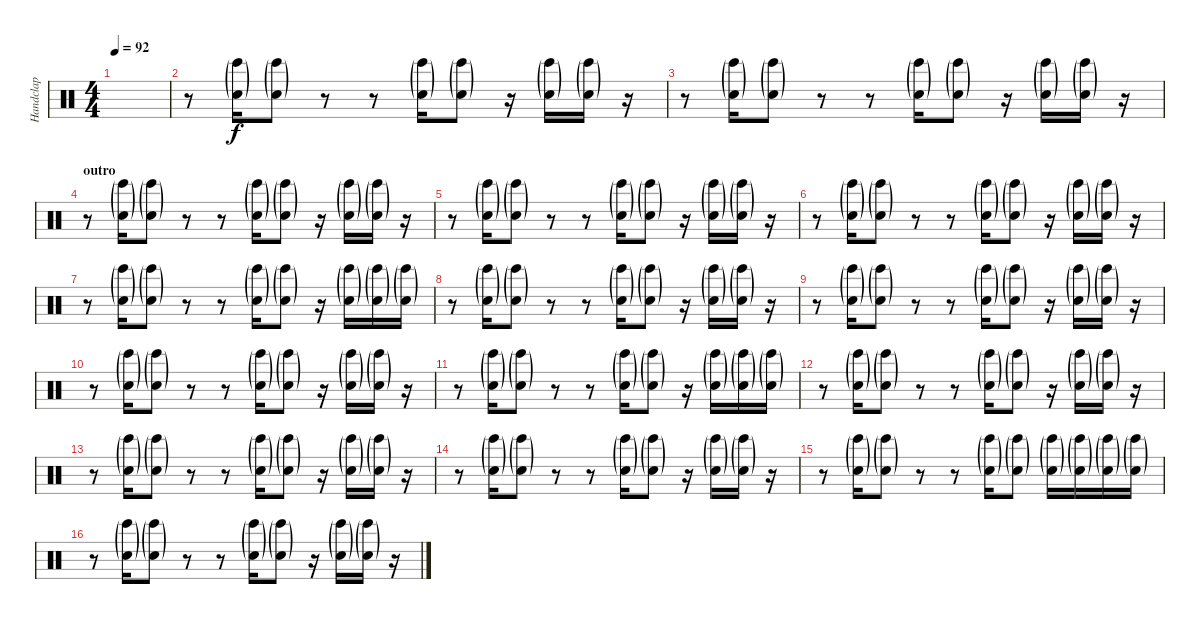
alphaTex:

\track ("Handclap" "Handclap") {instrument percussion}
\staff {score}
\articulation defaults
\ts (4 4)
\tempo 92
\clef neutral
\ks c
|
r.8 ("Hand Clap (hit)"{g} "Bongo High (hit)"{g}).16 ("Hand Clap (hit)"{g} "Bongo High (hit)"{g}).8 r.8 r.8 ("Hand Clap (hit)"{g} "Bongo High (hit)"{g}).16 ("Hand Clap (hit)"{g} "Bongo High (hit)"{g}).8 r.16 ("Hand Clap (hit)"{g} "Bongo High (hit)"{g}).16 ("Hand Clap (hit)"{g} "Bongo High (hit)"{g}).16 r.16 |
r.8 ("Hand Clap (hit)"{g} "Bongo High (hit)"{g}).16 ("Hand Clap (hit)"{g} "Bongo High (hit)"{g}).8 r.8 r.8 ("Hand Clap (hit)"{g} "Bongo High (hit)"{g}).16 ("Hand Clap (hit)"{g} "Bongo High (hit)"{g}).8 r.16 ("Hand Clap (hit)"{g} "Bongo High (hit)"{g}).16 ("Hand Clap (hit)"{g} "Bongo High (hit)"{g}).16 r.16 |
\section ("" "outro")
r.8 ("Hand Clap (hit)"{g} "Bongo High (hit)"{g}).16 ("Hand Clap (hit)"{g} "Bongo High (hit)"{g}).8 r.8 r.8 ("Hand Clap (hit)"{g} "Bongo High (hit)"{g}).16 ("Hand Clap (hit)"{g} "Bongo High (hit)"{g}).8 r.16 ("Hand Clap (hit)"{g} "Bongo High (hit)"{g}).16 ("Hand Clap (hit)"{g} "Bongo High (hit)"{g}).16 r.16 |
r.8 ("Hand Clap (hit)"{g} "Bongo High (hit)"{g}).16 ("Hand Clap (hit)"{g} "Bongo High (hit)"{g}).8 r.8 r.8 ("Hand Clap (hit)"{g} "Bongo High (hit)"{g}).16 ("Hand Clap (hit)"{g} "Bongo High (hit)"{g}).8 r.16 ("Hand Clap (hit)"{g} "Bongo High (hit)"{g}).16 ("Hand Clap (hit)"{g} "Bongo High (hit)"{g}).16 r.16 |
r.8 ("Hand Clap (hit)"{g} "Bongo High (hit)"{g}).16 ("Hand Clap (hit)"{g} "Bongo High (hit)"{g}).8 r.8 r.8 ("Hand Clap (hit)"{g} "Bongo High (hit)"{g}).16 ("Hand Clap (hit)"{g} "Bongo High (hit)"{g}).8 r.16 ("Hand Clap (hit)"{g} "Bongo High (hit)"{g}).16 ("Hand Clap (hit)"{g} "Bongo High (hit)"{g}).16 r.16 |
r.8 ("Hand Clap (hit)"{g} "Bongo High (hit)"{g}).16 ("Hand Clap (hit)"{g} "Bongo High (hit)"{g}).8 r.8 r.8 ("Hand Clap (hit)"{g} "Bongo High (hit)"{g}).16 ("Hand Clap (hit)"{g} "Bongo High (hit)"{g}).8 r.16 ("Hand Clap (hit)"{g} "Bongo High (hit)"{g}).16 ("Hand Clap (hit)"{g} "Bongo High (hit)"{g}).16 ("Hand Clap (hit)"{g} "Bongo High (hit)"{g}).16 |
r.8 ("Hand Clap (hit)"{g} "Bongo High (hit)"{g}).16 ("Hand Clap (hit)"{g} "Bongo High (hit)"{g}).8 r.8 r.8 ("Hand Clap (hit)"{g} "Bongo High (hit)"{g}).16 ("Hand Clap (hit)"{g} "Bongo High (hit)"{g}).8 r.16 ("Hand Clap (hit)"{g} "Bongo High (hit)"{g}).16 ("Hand Clap (hit)"{g} "Bongo High (hit)"{g}).16 r.16 |
r.8 ("Hand Clap (hit)"{g} "Bongo High (hit)"{g}).16 ("Hand Clap (hit)"{g} "Bongo High (hit)"{g}).8 r.8 r.8 ("Hand Clap (hit)"{g} "Bongo High (hit)"{g}).16 ("Hand Clap (hit)"{g} "Bongo High (hit)"{g}).8 r.16 ("Hand Clap (hit)"{g} "Bongo High (hit)"{g}).16 ("Hand Clap (hit)"{g} "Bongo High (hit)"{g}).16 r.16 |
r.8 ("Hand Clap (hit)"{g} "Bongo High (hit)"{g}).16 ("Hand Clap (hit)"{g} "Bongo High (hit)"{g}).8 r.8 r.8 ("Hand Clap (hit)"{g} "Bongo High (hit)"{g}).16 ("Hand Clap (hit)"{g} "Bongo High (hit)"{g}).8 r.16 ("Hand Clap (hit)"{g} "Bongo High (hit)"{g}).16 ("Hand Clap (hit)"{g} "Bongo High (hit)"{g}).16 r.16 |
r.8 ("Hand Clap (hit)"{g} "Bongo High (hit)"{g}).16 ("Hand Clap (hit)"{g} "Bongo High (hit)"{g}).8 r.8 r.8 ("Hand Clap (hit)"{g} "Bongo High (hit)"{g}).16 ("Hand Clap (hit)"{g} "Bongo High (hit)"{g}).8 r.16 ("Hand Clap (hit)"{g} "Bongo High (hit)"{g}).16 ("Hand Clap (hit)"{g} "Bongo High (hit)"{g}).16 ("Hand Clap (hit)"{g} "Bongo High (hit)"{g}).16 |
r.8 ("Hand Clap (hit)"{g} "Bongo High (hit)"{g}).16 ("Hand Clap (hit)"{g} "Bongo High (hit)"{g}).8 r.8 r.8 ("Hand Clap (hit)"{g} "Bongo High (hit)"{g}).16 ("Hand Clap (hit)"{g} "Bongo High (hit)"{g}).8 r.16 ("Hand Clap (hit)"{g} "Bongo High (hit)"{g}).16 ("Hand Clap (hit)"{g} "Bongo High (hit)"{g}).16 r.16 |
r.8 ("Hand Clap (hit)"{g} "Bongo High (hit)"{g}).16 ("Hand Clap (hit)"{g} "Bongo High (hit)"{g}).8 r.8 r.8 ("Hand Clap (hit)"{g} "Bongo High (hit)"{g}).16 ("Hand Clap (hit)"{g} "Bongo High (hit)"{g}).8 r.16 ("Hand Clap (hit)"{g} "Bongo High (hit)"{g}).16 ("Hand Clap (hit)"{g} "Bongo High (hit)"{g}).16 r.16 |
r.8 ("Hand Clap (hit)"{g} "Bongo High (hit)"{g}).16 ("Hand Clap (hit)"{g} "Bongo High (hit)"{g}).8 r.8 r.8 ("Hand Clap (hit)"{g} "Bongo High (hit)"{g}).16 ("Hand Clap (hit)"{g} "Bongo High (hit)"{g}).8 r.16 ("Hand Clap (hit)"{g} "Bongo High (hit)"{g}).16 ("Hand Clap (hit)"{g} "Bongo High (hit)"{g}).16 r.16 |
r.8 ("Hand Clap (hit)"{g} "Bongo High (hit)"{g}).16 ("Hand Clap (hit)"{g} "Bongo High (hit)"{g}).8 r.8 r.8 ("Hand Clap (hit)"{g} "Bongo High (hit)"{g}).16 ("Hand Clap (hit)"{g} "Bongo High (hit)"{g}).8 ("Hand Clap (hit)"{g} "Bongo High (hit)"{g}).16 ("Hand Clap (hit)"{g} "Bongo High (hit)"{g}).16 ("Hand Clap (hit)"{g} "Bongo High (hit)"{g}).16 ("Hand Clap (hit)"{g} "Bongo High (hit)"{g}).16 |
r.8 ("Hand Clap (hit)"{g} "Bongo High (hit)"{g}).16 ("Hand Clap (hit)"{g} "Bongo High (hit)"{g}).8 r.8 r.8 ("Hand Clap (hit)"{g} "Bongo High (hit)"{g}).16 ("Hand Clap (hit)"{g} "Bongo High (hit)"{g}).8 r.16 ("Hand Clap (hit)"{g} "Bongo High (hit)"{g}).16 ("Hand Clap (hit)"{g} "Bongo High (hit)"{g}).16 r.16
